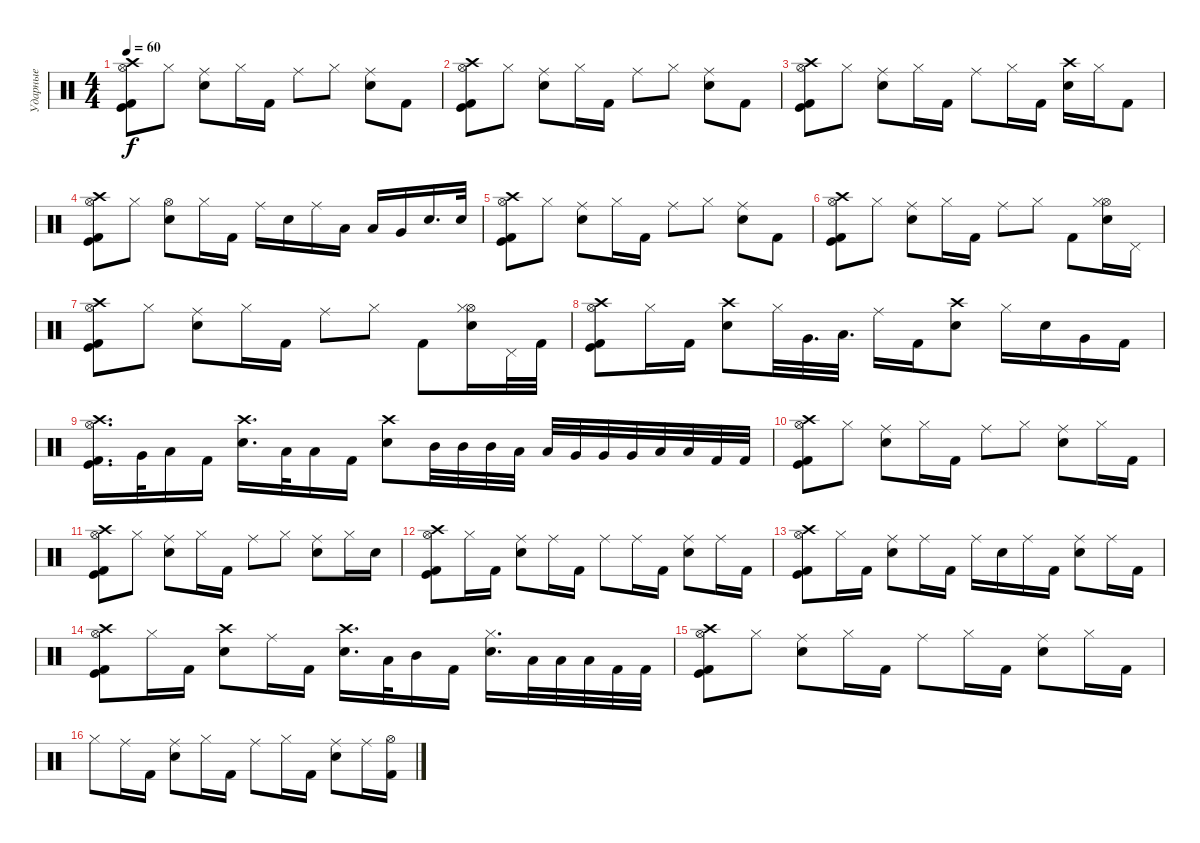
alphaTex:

\track ("Ударные" "Ударные") {instrument percussion}
\staff {score}
\articulation defaults
\ts (4 4)
\tempo 60
\clef neutral
\ks c
("Crash high (hit)" "Hi-Hat (open)" "Kick (hit)" "Kick (hit) 2").8{dy f} "Hi-Hat (closed)".8 ("Ride (middle)" "Snare (hit) 2").8 "Hi-Hat (closed)".16 "Kick (hit) 2".16 "Ride (middle)".8 "Hi-Hat (closed)".8 ("Ride (middle)" "Snare (hit) 2").8 "Kick (hit) 2".8 |
("Crash high (hit)" "Hi-Hat (open)" "Kick (hit)" "Kick (hit) 2").8 "Hi-Hat (closed)".8 ("Ride (middle)" "Snare (hit) 2").8 "Hi-Hat (closed)".16 "Kick (hit) 2".16 "Ride (middle)".8 "Hi-Hat (closed)".8 ("Ride (middle)" "Snare (hit) 2").8 "Kick (hit) 2".8 |
("Crash high (hit)" "Hi-Hat (open)" "Kick (hit)" "Kick (hit) 2").8 "Hi-Hat (closed)".8 ("Ride (middle)" "Snare (hit) 2").8 "Hi-Hat (closed)".16 "Kick (hit) 2".16 "Ride (middle)".8 "Hi-Hat (closed)".16 "Kick (hit) 2".16 ("Crash high (hit)" "Snare (hit) 2").16 "Hi-Hat (closed)".16 "Kick (hit) 2".8 |
("Crash high (hit)" "Hi-Hat (open)" "Kick (hit)" "Kick (hit) 2").8 "Hi-Hat (closed)".8 ("Hi-Hat (open)" "Snare (hit) 2").8 "Hi-Hat (closed)".16 "Kick (hit) 2".16 "Ride (middle)".16 "Snare (hit) 2".16 "Ride (middle)".16 "Low Tom (hit)".16 "Low Tom (hit)".16 "Very Low Tom (hit)".16 "Snare (hit) 2".16{d} "Snare (hit) 2".32 |
("Crash high (hit)" "Hi-Hat (open)" "Kick (hit)" "Kick (hit) 2").8 "Hi-Hat (closed)".8 ("Ride (middle)" "Snare (hit) 2").8 "Hi-Hat (closed)".16 "Kick (hit) 2".16 "Ride (middle)".8 "Hi-Hat (closed)".8 ("Ride (middle)" "Snare (hit) 2").8 "Kick (hit) 2".8 |
("Crash high (hit)" "Hi-Hat (open)" "Kick (hit)" "Kick (hit) 2").8 "Hi-Hat (closed)".8 ("Ride (middle)" "Snare (hit) 2").8 "Hi-Hat (closed)".16 "Kick (hit) 2".16 "Ride (middle)".8 "Hi-Hat (closed)".8 "Kick (hit) 2".8 ("Hi-Hat (open)" "Hi-Hat (closed)" "Snare (hit) 2").16 "Pedal Hi-Hat (hit)".16 |
("Crash high (hit)" "Hi-Hat (open)" "Kick (hit)" "Kick (hit) 2").8 "Hi-Hat (closed)".8 ("Ride (middle)" "Snare (hit) 2").8 "Hi-Hat (closed)".16 "Kick (hit) 2".16 "Ride (middle)".8 "Hi-Hat (closed)".8 "Kick (hit) 2".8 ("Hi-Hat (open)" "Hi-Hat (closed)" "Snare (hit) 2").16 "Pedal Hi-Hat (hit)".32 "Kick (hit) 2".32 |
("Crash high (hit)" "Hi-Hat (open)" "Kick (hit)" "Kick (hit) 2").8 "Hi-Hat (closed)".16 "Kick (hit) 2".16 ("Crash high (hit)" "Snare (hit) 2").8 "Hi-Hat (closed)".32 "Very Low Tom (hit)".32{d} "Low Floor Tom (hit)".32{d} "Ride (middle)".16 "Kick (hit) 2".16 ("Crash high (hit)" "Snare (hit) 2").8 "Hi-Hat (closed)".16 "Snare (hit) 2".16 "Very Low Tom (hit)".16 "Kick (hit) 2".16 |
("Hi-Hat (open)" "Crash high (hit)" "Kick (hit) 2" "Kick (hit)").16{d} "Very Low Tom (hit)".32 "Low Tom (hit)".16 "Kick (hit) 2".16 ("Crash high (hit)" "Snare (hit) 2").16{d} "Low Tom (hit)".32 "Low Tom (hit)".16 "Kick (hit) 2".16 ("Crash high (hit)" "Snare (hit) 2").8 "Mid Tom (hit)".32 "Mid Tom (hit)".32 "Mid Tom (hit)".32 "Low Tom (hit)".32 "Low Tom (hit)".32 "Very Low Tom (hit)".32 "Very Low Tom (hit)".32 "Very Low Tom (hit)".32 "Low Floor Tom (hit)".32 "Low Floor Tom (hit)".32 "Kick (hit) 2".32 "Kick (hit) 2".32 |
("Crash high (hit)" "Hi-Hat (open)" "Kick (hit)" "Kick (hit) 2").8 "Hi-Hat (closed)".8 ("Ride (middle)" "Snare (hit) 2").8 "Hi-Hat (closed)".16 "Kick (hit) 2".16 "Ride (middle)".8 "Hi-Hat (closed)".8 ("Ride (middle)" "Snare (hit) 2").8 "Hi-Hat (closed)".16 "Kick (hit) 2".16 |
("Crash high (hit)" "Hi-Hat (open)" "Kick (hit)" "Kick (hit) 2").8 "Hi-Hat (closed)".8 ("Ride (middle)" "Snare (hit) 2").8 "Hi-Hat (closed)".16 "Kick (hit) 2".16 "Ride (middle)".8 "Hi-Hat (closed)".8 ("Ride (middle)" "Snare (hit) 2").8 "Hi-Hat (closed)".16 "Snare (hit) 2".16 |
("Crash high (hit)" "Hi-Hat (open)" "Kick (hit)" "Kick (hit) 2").8 "Hi-Hat (closed)".16 "Kick (hit) 2".16 ("Ride (middle)" "Snare (hit) 2").8 "Ride (middle)".16 "Kick (hit) 2".16 "Ride (middle)".8 "Ride (middle)".16 "Kick (hit) 2".16 ("Ride (middle)" "Snare (hit) 2").8 "Ride (middle)".16 "Kick (hit) 2".16 |
("Crash high (hit)" "Hi-Hat (open)" "Kick (hit)" "Kick (hit) 2").8 "Hi-Hat (closed)".16 "Kick (hit) 2".16 ("Ride (middle)" "Snare (hit) 2").8 "Ride (middle)".16 "Kick (hit) 2".16 "Ride (middle)".16 "Snare (hit) 2".16 "Ride (middle)".16 "Kick (hit) 2".16 ("Ride (middle)" "Snare (hit) 2").8 "Ride (middle)".16 "Kick (hit) 2".16 |
("Crash high (hit)" "Hi-Hat (open)" "Kick (hit)" "Kick (hit) 2").8 "Hi-Hat (closed)".16 "Kick (hit) 2".16 ("Crash high (hit)" "Snare (hit) 2").8 "Ride (middle)".16 "Kick (hit) 2".16 ("Crash high (hit)" "Snare (hit) 2").16{d} "Low Tom (hit)".32 "Mid Tom (hit)".16 "Kick (hit) 2".16 ("Hi-Hat (closed)" "Snare (hit) 2").16{d} "Low Tom (hit)".32 "Low Tom (hit)".32 "Low Tom (hit)".32 "Kick (hit) 2".32 "Kick (hit) 2".32 |
("Crash high (hit)" "Hi-Hat (open)" "Kick (hit)" "Kick (hit) 2").8 "Hi-Hat (closed)".8 ("Ride (middle)" "Snare (hit) 2").8 "Hi-Hat (closed)".16 "Kick (hit) 2".16 "Ride (middle)".8 "Hi-Hat (closed)".16 "Kick (hit) 2".16 ("Ride (middle)" "Snare (hit) 2").8 "Hi-Hat (closed)".16 "Kick (hit) 2".16 |
"Hi-Hat (closed)".8 "Ride (middle)".16 "Kick (hit) 2".16 ("Ride (middle)" "Snare (hit) 2").8 "Hi-Hat (closed)".16 "Kick (hit) 2".16 "Ride (middle)".8 "Hi-Hat (closed)".16 "Kick (hit) 2".16 ("Ride (middle)" "Snare (hit) 2").8 "Ride (middle)".16 ("Hi-Hat (open)" "Kick (hit) 2").16
